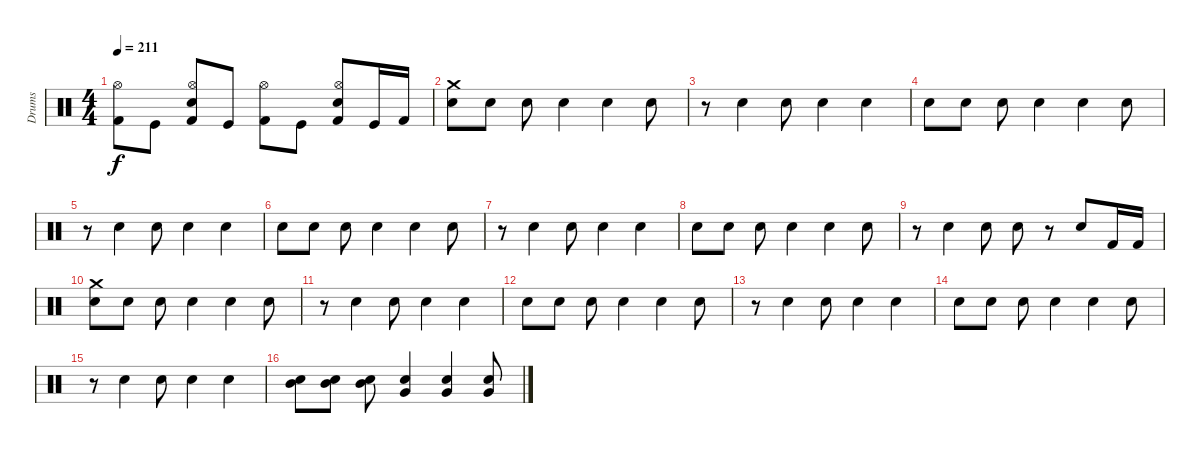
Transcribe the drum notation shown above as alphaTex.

\track ("Drums" "Drums") {instrument percussion}
\staff {score}
\articulation defaults
\ts (4 4)
\tempo 211
\clef neutral
\ks c
("Kick (hit) 2" "Hi-Hat (open)").8{dy f} "Kick (hit)".8 ("Kick (hit) 2" "Snare (hit) 2" "Hi-Hat (open)").8 "Kick (hit)".8 ("Kick (hit) 2" "Hi-Hat (open)").8 "Kick (hit)".8 ("Kick (hit) 2" "Snare (hit) 2" "Hi-Hat (open)").8 "Kick (hit)".16 "Kick (hit) 2".16 |
("Snare (hit) 2" "Crash medium (hit)").8 "Snare (hit) 2".8 "Snare (hit) 2".8 "Snare (hit) 2".4 "Snare (hit) 2".4 "Snare (hit) 2".8 |
r.8 "Snare (hit) 2".4 "Snare (hit) 2".8 "Snare (hit) 2".4 "Snare (hit) 2".4 |
"Snare (hit) 2".8 "Snare (hit) 2".8 "Snare (hit) 2".8 "Snare (hit) 2".4 "Snare (hit) 2".4 "Snare (hit) 2".8 |
r.8 "Snare (hit) 2".4 "Snare (hit) 2".8 "Snare (hit) 2".4 "Snare (hit) 2".4 |
"Snare (hit) 2".8 "Snare (hit) 2".8 "Snare (hit) 2".8 "Snare (hit) 2".4 "Snare (hit) 2".4 "Snare (hit) 2".8 |
r.8 "Snare (hit) 2".4 "Snare (hit) 2".8 "Snare (hit) 2".4 "Snare (hit) 2".4 |
"Snare (hit) 2".8 "Snare (hit) 2".8 "Snare (hit) 2".8 "Snare (hit) 2".4 "Snare (hit) 2".4 "Snare (hit) 2".8 |
r.8 "Snare (hit) 2".4 "Snare (hit) 2".8 "Snare (hit) 2".8 r.8 "Snare (hit) 2".8 "Kick (hit) 2".16 "Kick (hit) 2".16 |
("Snare (hit) 2" "Crash medium (hit)").8 "Snare (hit) 2".8 "Snare (hit) 2".8 "Snare (hit) 2".4 "Snare (hit) 2".4 "Snare (hit) 2".8 |
r.8 "Snare (hit) 2".4 "Snare (hit) 2".8 "Snare (hit) 2".4 "Snare (hit) 2".4 |
"Snare (hit) 2".8 "Snare (hit) 2".8 "Snare (hit) 2".8 "Snare (hit) 2".4 "Snare (hit) 2".4 "Snare (hit) 2".8 |
r.8 "Snare (hit) 2".4 "Snare (hit) 2".8 "Snare (hit) 2".4 "Snare (hit) 2".4 |
"Snare (hit) 2".8 "Snare (hit) 2".8 "Snare (hit) 2".8 "Snare (hit) 2".4 "Snare (hit) 2".4 "Snare (hit) 2".8 |
r.8 "Snare (hit) 2".4 "Snare (hit) 2".8 "Snare (hit) 2".4 "Snare (hit) 2".4 |
("Snare (hit) 2" "Mid Tom (hit)").8 ("Snare (hit) 2" "Mid Tom (hit)").8 ("Snare (hit) 2" "Mid Tom (hit)").8 ("Snare (hit) 2" "Very Low Tom (hit)").4 ("Snare (hit) 2" "Very Low Tom (hit)").4 ("Snare (hit) 2" "Very Low Tom (hit)").8
